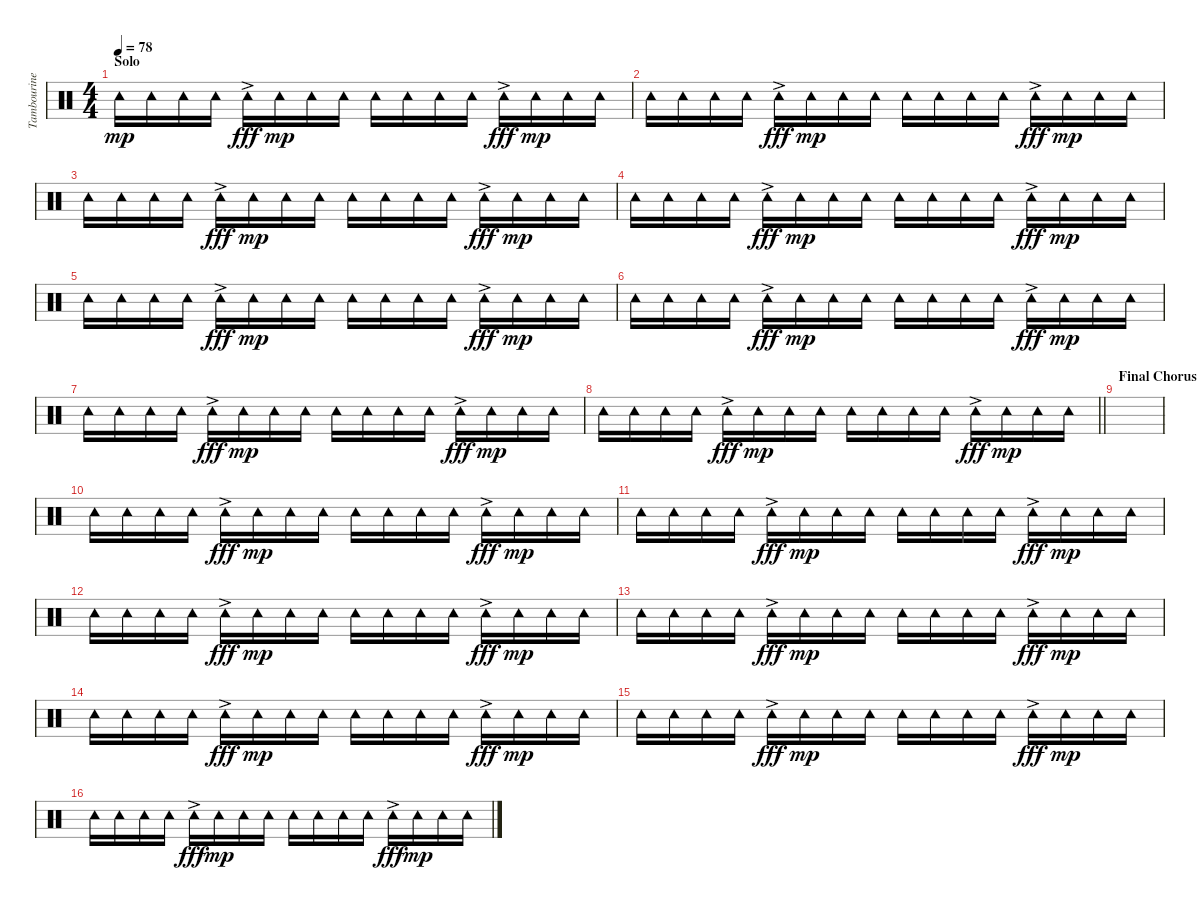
\track ("Tambourine" "Tambourine") {instrument percussion}
\staff {score}
\articulation defaults
\ts (4 4)
\section ("" "Solo")
\tempo 78
\clef neutral
\ks c "Tambourine (hit)".16{dy mp volume 1} "Tambourine (hit)".16 "Tambourine (hit)".16 "Tambourine (hit)".16 "Tambourine (hit)"{ac}.16{dy fff} "Tambourine (hit)".16{dy mp} "Tambourine (hit)".16 "Tambourine (hit)".16 "Tambourine (hit)".16 "Tambourine (hit)".16 "Tambourine (hit)".16 "Tambourine (hit)".16 "Tambourine (hit)"{ac}.16{dy fff} "Tambourine (hit)".16{dy mp} "Tambourine (hit)".16 "Tambourine (hit)".16
|
"Tambourine (hit)".16 "Tambourine (hit)".16 "Tambourine (hit)".16 "Tambourine (hit)".16 "Tambourine (hit)"{ac}.16{dy fff} "Tambourine (hit)".16{dy mp} "Tambourine (hit)".16 "Tambourine (hit)".16 "Tambourine (hit)".16 "Tambourine (hit)".16 "Tambourine (hit)".16 "Tambourine (hit)".16 "Tambourine (hit)"{ac}.16{dy fff} "Tambourine (hit)".16{dy mp} "Tambourine (hit)".16 "Tambourine (hit)".16 |
"Tambourine (hit)".16 "Tambourine (hit)".16 "Tambourine (hit)".16 "Tambourine (hit)".16 "Tambourine (hit)"{ac}.16{dy fff} "Tambourine (hit)".16{dy mp} "Tambourine (hit)".16 "Tambourine (hit)".16 "Tambourine (hit)".16 "Tambourine (hit)".16 "Tambourine (hit)".16 "Tambourine (hit)".16 "Tambourine (hit)"{ac}.16{dy fff} "Tambourine (hit)".16{dy mp} "Tambourine (hit)".16 "Tambourine (hit)".16 |
"Tambourine (hit)".16 "Tambourine (hit)".16 "Tambourine (hit)".16 "Tambourine (hit)".16 "Tambourine (hit)"{ac}.16{dy fff} "Tambourine (hit)".16{dy mp} "Tambourine (hit)".16 "Tambourine (hit)".16 "Tambourine (hit)".16 "Tambourine (hit)".16 "Tambourine (hit)".16 "Tambourine (hit)".16 "Tambourine (hit)"{ac}.16{dy fff} "Tambourine (hit)".16{dy mp} "Tambourine (hit)".16 "Tambourine (hit)".16 |
"Tambourine (hit)".16 "Tambourine (hit)".16 "Tambourine (hit)".16 "Tambourine (hit)".16 "Tambourine (hit)"{ac}.16{dy fff} "Tambourine (hit)".16{dy mp} "Tambourine (hit)".16 "Tambourine (hit)".16 "Tambourine (hit)".16 "Tambourine (hit)".16 "Tambourine (hit)".16 "Tambourine (hit)".16 "Tambourine (hit)"{ac}.16{dy fff} "Tambourine (hit)".16{dy mp} "Tambourine (hit)".16 "Tambourine (hit)".16 |
"Tambourine (hit)".16 "Tambourine (hit)".16 "Tambourine (hit)".16 "Tambourine (hit)".16 "Tambourine (hit)"{ac}.16{dy fff} "Tambourine (hit)".16{dy mp} "Tambourine (hit)".16 "Tambourine (hit)".16 "Tambourine (hit)".16 "Tambourine (hit)".16 "Tambourine (hit)".16 "Tambourine (hit)".16 "Tambourine (hit)"{ac}.16{dy fff} "Tambourine (hit)".16{dy mp} "Tambourine (hit)".16 "Tambourine (hit)".16 |
"Tambourine (hit)".16 "Tambourine (hit)".16 "Tambourine (hit)".16 "Tambourine (hit)".16 "Tambourine (hit)"{ac}.16{dy fff} "Tambourine (hit)".16{dy mp} "Tambourine (hit)".16 "Tambourine (hit)".16 "Tambourine (hit)".16 "Tambourine (hit)".16 "Tambourine (hit)".16 "Tambourine (hit)".16 "Tambourine (hit)"{ac}.16{dy fff} "Tambourine (hit)".16{dy mp} "Tambourine (hit)".16 "Tambourine (hit)".16 |
\barLineRight lightlight "Tambourine (hit)".16 "Tambourine (hit)".16 "Tambourine (hit)".16 "Tambourine (hit)".16 "Tambourine (hit)"{ac}.16{dy fff} "Tambourine (hit)".16{dy mp} "Tambourine (hit)".16 "Tambourine (hit)".16 "Tambourine (hit)".16 "Tambourine (hit)".16 "Tambourine (hit)".16 "Tambourine (hit)".16 "Tambourine (hit)"{ac}.16{dy fff} "Tambourine (hit)".16{dy mp} "Tambourine (hit)".16 "Tambourine (hit)".16
|
\section ("" "Final Chorus")
|
"Tambourine (hit)".16 "Tambourine (hit)".16 "Tambourine (hit)".16 "Tambourine (hit)".16 "Tambourine (hit)"{ac}.16{dy fff} "Tambourine (hit)".16{dy mp} "Tambourine (hit)".16 "Tambourine (hit)".16 "Tambourine (hit)".16 "Tambourine (hit)".16 "Tambourine (hit)".16 "Tambourine (hit)".16 "Tambourine (hit)"{ac}.16{dy fff} "Tambourine (hit)".16{dy mp} "Tambourine (hit)".16 "Tambourine (hit)".16 |
"Tambourine (hit)".16 "Tambourine (hit)".16 "Tambourine (hit)".16 "Tambourine (hit)".16 "Tambourine (hit)"{ac}.16{dy fff} "Tambourine (hit)".16{dy mp} "Tambourine (hit)".16 "Tambourine (hit)".16 "Tambourine (hit)".16 "Tambourine (hit)".16 "Tambourine (hit)".16 "Tambourine (hit)".16 "Tambourine (hit)"{ac}.16{dy fff} "Tambourine (hit)".16{dy mp} "Tambourine (hit)".16 "Tambourine (hit)".16 |
"Tambourine (hit)".16 "Tambourine (hit)".16 "Tambourine (hit)".16 "Tambourine (hit)".16 "Tambourine (hit)"{ac}.16{dy fff} "Tambourine (hit)".16{dy mp} "Tambourine (hit)".16 "Tambourine (hit)".16 "Tambourine (hit)".16 "Tambourine (hit)".16 "Tambourine (hit)".16 "Tambourine (hit)".16 "Tambourine (hit)"{ac}.16{dy fff} "Tambourine (hit)".16{dy mp} "Tambourine (hit)".16 "Tambourine (hit)".16 |
"Tambourine (hit)".16 "Tambourine (hit)".16 "Tambourine (hit)".16 "Tambourine (hit)".16 "Tambourine (hit)"{ac}.16{dy fff} "Tambourine (hit)".16{dy mp} "Tambourine (hit)".16 "Tambourine (hit)".16 "Tambourine (hit)".16 "Tambourine (hit)".16 "Tambourine (hit)".16 "Tambourine (hit)".16 "Tambourine (hit)"{ac}.16{dy fff} "Tambourine (hit)".16{dy mp} "Tambourine (hit)".16 "Tambourine (hit)".16 |
"Tambourine (hit)".16 "Tambourine (hit)".16 "Tambourine (hit)".16 "Tambourine (hit)".16 "Tambourine (hit)"{ac}.16{dy fff} "Tambourine (hit)".16{dy mp} "Tambourine (hit)".16 "Tambourine (hit)".16 "Tambourine (hit)".16 "Tambourine (hit)".16 "Tambourine (hit)".16 "Tambourine (hit)".16 "Tambourine (hit)"{ac}.16{dy fff} "Tambourine (hit)".16{dy mp} "Tambourine (hit)".16 "Tambourine (hit)".16 |
"Tambourine (hit)".16{volume 1} "Tambourine (hit)".16 "Tambourine (hit)".16 "Tambourine (hit)".16 "Tambourine (hit)"{ac}.16{dy fff} "Tambourine (hit)".16{dy mp} "Tambourine (hit)".16 "Tambourine (hit)".16 "Tambourine (hit)".16 "Tambourine (hit)".16 "Tambourine (hit)".16 "Tambourine (hit)".16 "Tambourine (hit)"{ac}.16{dy fff} "Tambourine (hit)".16{dy mp} "Tambourine (hit)".16 "Tambourine (hit)".16 |
"Tambourine (hit)".16 "Tambourine (hit)".16 "Tambourine (hit)".16 "Tambourine (hit)".16 "Tambourine (hit)"{ac}.16{dy fff} "Tambourine (hit)".16{dy mp} "Tambourine (hit)".16 "Tambourine (hit)".16 "Tambourine (hit)".16 "Tambourine (hit)".16 "Tambourine (hit)".16 "Tambourine (hit)".16 "Tambourine (hit)"{ac}.16{dy fff} "Tambourine (hit)".16{dy mp} "Tambourine (hit)".16 "Tambourine (hit)".16
